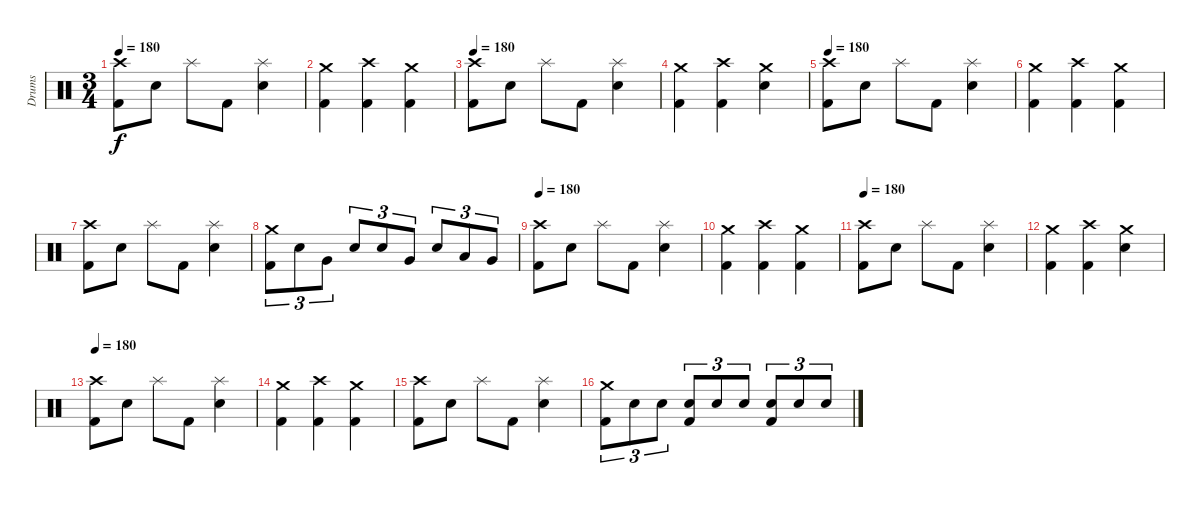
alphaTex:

\track ("Drums" "Drums") {instrument percussion}
\staff {score}
\articulation defaults
\ts (3 4)
\tempo 180
\clef neutral
\ks c
("Crash high (hit)" "Kick (hit) 2").8{dy f} "Snare (hit) 2".8 "Splash (hit)".8 "Kick (hit) 2".8 ("Splash (hit)" "Snare (hit) 2").4 |
("Crash medium (hit)" "Kick (hit) 2").4 ("Crash high (hit)" "Kick (hit) 2").4 ("Crash medium (hit)" "Kick (hit) 2").4 |
\tempo 180
("Crash high (hit)" "Kick (hit) 2").8 "Snare (hit) 2".8 "Splash (hit)".8 "Kick (hit) 2".8 ("Splash (hit)" "Snare (hit) 2").4 |
("Crash medium (hit)" "Kick (hit) 2").4 ("Crash high (hit)" "Kick (hit) 2").4 ("Crash medium (hit)" "Snare (hit) 2").4 |
\tempo 180
("Crash high (hit)" "Kick (hit) 2").8 "Snare (hit) 2".8 "Splash (hit)".8 "Kick (hit) 2".8 ("Splash (hit)" "Snare (hit) 2").4 |
("Crash medium (hit)" "Kick (hit) 2").4 ("Crash high (hit)" "Kick (hit) 2").4 ("Crash medium (hit)" "Kick (hit) 2").4 |
("Crash high (hit)" "Kick (hit) 2").8 "Snare (hit) 2".8 "Splash (hit)".8 "Kick (hit) 2".8 ("Splash (hit)" "Snare (hit) 2").4 |
("Crash medium (hit)" "Kick (hit) 2").8{tu (3 2)} "Snare (hit) 2".8{tu (3 2)} "Very Low Tom (hit)".8{tu (3 2)} "Snare (hit) 2".8{tu (3 2)} "Snare (hit) 2".8{tu (3 2)} "Very Low Tom (hit)".8{tu (3 2)} "Snare (hit) 2".8{tu (3 2)} "Low Tom (hit)".8{tu (3 2)} "Very Low Tom (hit)".8{tu (3 2)} |
\tempo 180
("Crash high (hit)" "Kick (hit) 2").8 "Snare (hit) 2".8 "Splash (hit)".8 "Kick (hit) 2".8 ("Splash (hit)" "Snare (hit) 2").4 |
("Crash medium (hit)" "Kick (hit) 2").4 ("Crash high (hit)" "Kick (hit) 2").4 ("Crash medium (hit)" "Kick (hit) 2").4 |
\tempo 180
("Crash high (hit)" "Kick (hit) 2").8 "Snare (hit) 2".8 "Splash (hit)".8 "Kick (hit) 2".8 ("Splash (hit)" "Snare (hit) 2").4 |
("Crash medium (hit)" "Kick (hit) 2").4 ("Crash high (hit)" "Kick (hit) 2").4 ("Crash medium (hit)" "Snare (hit) 2").4 |
\tempo 180
("Crash high (hit)" "Kick (hit) 2").8 "Snare (hit) 2".8 "Splash (hit)".8 "Kick (hit) 2".8 ("Splash (hit)" "Snare (hit) 2").4 |
("Crash medium (hit)" "Kick (hit) 2").4 ("Crash high (hit)" "Kick (hit) 2").4 ("Crash medium (hit)" "Kick (hit) 2").4 |
("Crash high (hit)" "Kick (hit) 2").8 "Snare (hit) 2".8 "Splash (hit)".8 "Kick (hit) 2".8 ("Splash (hit)" "Snare (hit) 2").4 |
("Crash medium (hit)" "Kick (hit) 2").8{tu (3 2)} "Snare (hit) 2".8{tu (3 2)} "Snare (hit) 2".8{tu (3 2)} ("Snare (hit) 2" "Kick (hit) 2").8{tu (3 2)} "Snare (hit) 2".8{tu (3 2)} "Snare (hit) 2".8{tu (3 2)} ("Snare (hit) 2" "Kick (hit) 2").8{tu (3 2)} "Snare (hit) 2".8{tu (3 2)} "Snare (hit) 2".8{tu (3 2)}
